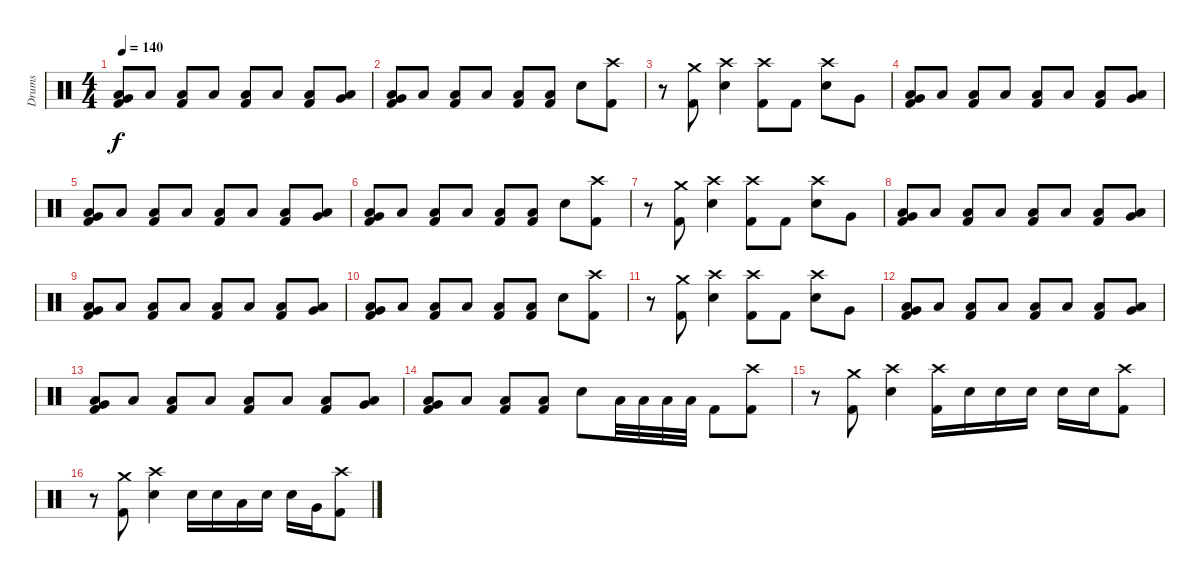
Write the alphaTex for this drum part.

\track ("Drums" "Drums") {instrument percussion}
\staff {score}
\articulation defaults
\ts (4 4)
\tempo 140
\clef neutral
\ks c
("Very Low Tom (hit)" "Low Floor Tom (hit)" "Kick (hit) 2").8{dy f} "Low Floor Tom (hit)".8 ("Low Floor Tom (hit)" "Kick (hit) 2").8 "Low Floor Tom (hit)".8 ("Low Floor Tom (hit)" "Kick (hit) 2").8 "Low Floor Tom (hit)".8 ("Low Floor Tom (hit)" "Kick (hit) 2").8 ("Very Low Tom (hit)" "Low Floor Tom (hit)").8 |
("Very Low Tom (hit)" "Low Floor Tom (hit)" "Kick (hit) 2").8 "Low Floor Tom (hit)".8 ("Low Floor Tom (hit)" "Kick (hit) 2").8 "Low Floor Tom (hit)".8 ("Low Floor Tom (hit)" "Kick (hit) 2").8 ("Low Floor Tom (hit)" "Kick (hit) 2").8 "Electric Snare (hit)".8 ("Crash high (hit)" "Kick (hit) 2").8 |
r.8 ("Crash medium (hit)" "Kick (hit) 2").8 ("Crash high (hit)" "Electric Snare (hit)").4 ("Crash high (hit)" "Kick (hit) 2").8 "Kick (hit) 2".8 ("Crash high (hit)" "Electric Snare (hit)").8 "Very Low Tom (hit)".8 |
("Very Low Tom (hit)" "Low Floor Tom (hit)" "Kick (hit) 2").8 "Low Floor Tom (hit)".8 ("Low Floor Tom (hit)" "Kick (hit) 2").8 "Low Floor Tom (hit)".8 ("Low Floor Tom (hit)" "Kick (hit) 2").8 "Low Floor Tom (hit)".8 ("Low Floor Tom (hit)" "Kick (hit) 2").8 ("Very Low Tom (hit)" "Low Floor Tom (hit)").8 |
("Very Low Tom (hit)" "Low Floor Tom (hit)" "Kick (hit) 2").8 "Low Floor Tom (hit)".8 ("Low Floor Tom (hit)" "Kick (hit) 2").8 "Low Floor Tom (hit)".8 ("Low Floor Tom (hit)" "Kick (hit) 2").8 "Low Floor Tom (hit)".8 ("Low Floor Tom (hit)" "Kick (hit) 2").8 ("Very Low Tom (hit)" "Low Floor Tom (hit)").8 |
("Very Low Tom (hit)" "Low Floor Tom (hit)" "Kick (hit) 2").8 "Low Floor Tom (hit)".8 ("Low Floor Tom (hit)" "Kick (hit) 2").8 "Low Floor Tom (hit)".8 ("Low Floor Tom (hit)" "Kick (hit) 2").8 ("Low Floor Tom (hit)" "Kick (hit) 2").8 "Electric Snare (hit)".8 ("Crash high (hit)" "Kick (hit) 2").8 |
r.8 ("Crash medium (hit)" "Kick (hit) 2").8 ("Crash high (hit)" "Electric Snare (hit)").4 ("Crash high (hit)" "Kick (hit) 2").8 "Kick (hit) 2".8 ("Crash high (hit)" "Electric Snare (hit)").8 "Very Low Tom (hit)".8 |
("Very Low Tom (hit)" "Low Floor Tom (hit)" "Kick (hit) 2").8 "Low Floor Tom (hit)".8 ("Low Floor Tom (hit)" "Kick (hit) 2").8 "Low Floor Tom (hit)".8 ("Low Floor Tom (hit)" "Kick (hit) 2").8 "Low Floor Tom (hit)".8 ("Low Floor Tom (hit)" "Kick (hit) 2").8 ("Very Low Tom (hit)" "Low Floor Tom (hit)").8 |
("Very Low Tom (hit)" "Low Floor Tom (hit)" "Kick (hit) 2").8 "Low Floor Tom (hit)".8 ("Low Floor Tom (hit)" "Kick (hit) 2").8 "Low Floor Tom (hit)".8 ("Low Floor Tom (hit)" "Kick (hit) 2").8 "Low Floor Tom (hit)".8 ("Low Floor Tom (hit)" "Kick (hit) 2").8 ("Very Low Tom (hit)" "Low Floor Tom (hit)").8 |
("Very Low Tom (hit)" "Low Floor Tom (hit)" "Kick (hit) 2").8 "Low Floor Tom (hit)".8 ("Low Floor Tom (hit)" "Kick (hit) 2").8 "Low Floor Tom (hit)".8 ("Low Floor Tom (hit)" "Kick (hit) 2").8 ("Low Floor Tom (hit)" "Kick (hit) 2").8 "Electric Snare (hit)".8 ("Crash high (hit)" "Kick (hit) 2").8 |
r.8 ("Crash medium (hit)" "Kick (hit) 2").8 ("Crash high (hit)" "Electric Snare (hit)").4 ("Crash high (hit)" "Kick (hit) 2").8 "Kick (hit) 2".8 ("Crash high (hit)" "Electric Snare (hit)").8 "Very Low Tom (hit)".8 |
("Very Low Tom (hit)" "Low Floor Tom (hit)" "Kick (hit) 2").8 "Low Floor Tom (hit)".8 ("Low Floor Tom (hit)" "Kick (hit) 2").8 "Low Floor Tom (hit)".8 ("Low Floor Tom (hit)" "Kick (hit) 2").8 "Low Floor Tom (hit)".8 ("Low Floor Tom (hit)" "Kick (hit) 2").8 ("Very Low Tom (hit)" "Low Floor Tom (hit)").8 |
("Very Low Tom (hit)" "Low Floor Tom (hit)" "Kick (hit) 2").8 "Low Floor Tom (hit)".8 ("Low Floor Tom (hit)" "Kick (hit) 2").8 "Low Floor Tom (hit)".8 ("Low Floor Tom (hit)" "Kick (hit) 2").8 "Low Floor Tom (hit)".8 ("Low Floor Tom (hit)" "Kick (hit) 2").8 ("Very Low Tom (hit)" "Low Floor Tom (hit)").8 |
("Very Low Tom (hit)" "Low Floor Tom (hit)" "Kick (hit) 2").8 "Low Floor Tom (hit)".8 ("Low Floor Tom (hit)" "Kick (hit) 2").8 ("Low Floor Tom (hit)" "Kick (hit) 2").8 "Electric Snare (hit)".8 "Low Tom (hit)".32 "Low Tom (hit)".32 "Low Tom (hit)".32 "Low Tom (hit)".32 "Kick (hit) 2".8 ("Crash high (hit)" "Kick (hit) 2").8 |
r.8 ("Crash medium (hit)" "Kick (hit) 2").8 ("Crash high (hit)" "Electric Snare (hit)").4 ("Crash high (hit)" "Kick (hit) 2").16 "Electric Snare (hit)".16 "Electric Snare (hit)".16 "Electric Snare (hit)".16 "Electric Snare (hit)".16 "Electric Snare (hit)".16 ("Crash high (hit)" "Kick (hit) 2").8 |
r.8 ("Crash medium (hit)" "Kick (hit) 2").8 ("Crash high (hit)" "Electric Snare (hit)").4 "Electric Snare (hit)".16 "Electric Snare (hit)".16 "Low Tom (hit)".16 "Electric Snare (hit)".16 "Electric Snare (hit)".16 "Very Low Tom (hit)".16 ("Crash high (hit)" "Kick (hit) 2").8
